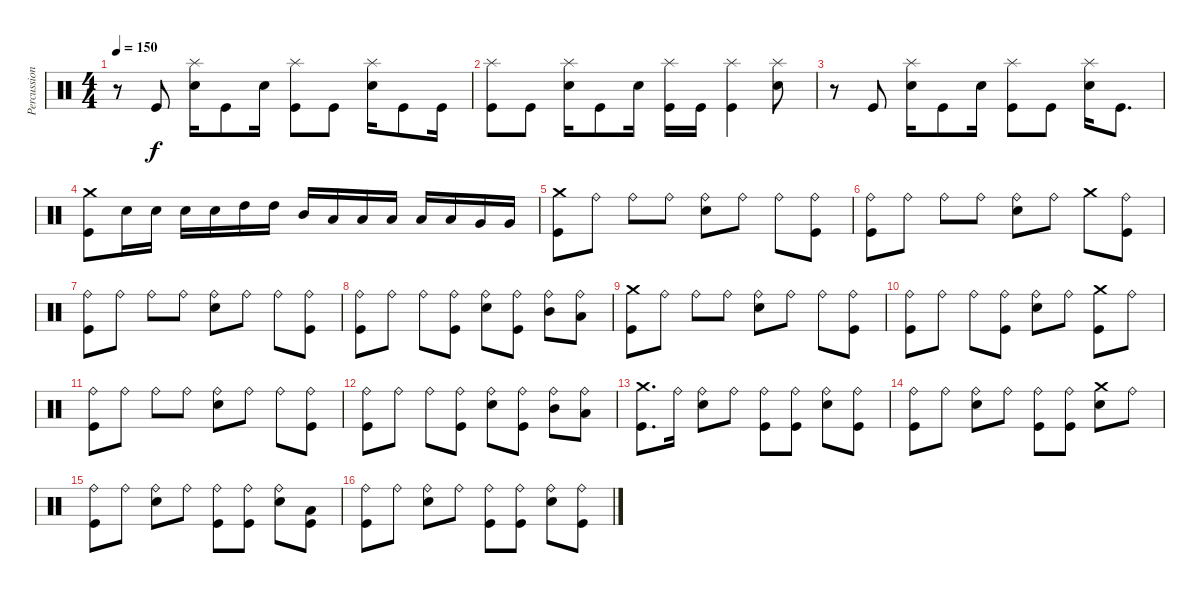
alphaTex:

\track ("Percussions" "Percussion") {instrument percussion}
\staff {score}
\articulation defaults
\ts (4 4)
\tempo 150
\clef neutral
\ks c
r.8{dy f} "Kick (hit)".8 ("Electric Snare (hit)" "Splash (hit)").16 "Kick (hit)".8 "Electric Snare (hit)".16 ("Kick (hit)" "Splash (hit)").8 "Kick (hit)".8 ("Electric Snare (hit)" "Splash (hit)").16 "Kick (hit)".8 "Kick (hit)".16 |
("Kick (hit)" "Splash (hit)").8 "Kick (hit)".8 ("Electric Snare (hit)" "Splash (hit)").16 "Kick (hit)".8 "Electric Snare (hit)".16 ("Kick (hit)" "Splash (hit)").16 "Kick (hit)".16 ("Kick (hit)" "Splash (hit)").4 ("Electric Snare (hit)" "Splash (hit)").8 |
r.8 "Kick (hit)".8 ("Electric Snare (hit)" "Splash (hit)").16 "Kick (hit)".8 "Electric Snare (hit)".16 ("Kick (hit)" "Splash (hit)").8 "Kick (hit)".8 ("Electric Snare (hit)" "Splash (hit)").16 "Kick (hit)".8{d} |
("Kick (hit)" "Crash medium (hit)").8 "Electric Snare (hit)".16 "Electric Snare (hit)".16 "Electric Snare (hit)".16 "Electric Snare (hit)".16 "High Tom (hit)".16 "High Tom (hit)".16 "Mid Tom (hit)".16 "Low Tom (hit)".16 "Low Tom (hit)".16 "Low Tom (hit)".16 "Low Tom (hit)".16 "Low Tom (hit)".16 "Very Low Tom (hit)".16 "Very Low Tom (hit)".16 |
("Kick (hit)" "Crash medium (hit)").8 "Ride (bell)".8 "Ride (bell)".8 "Ride (bell)".8 ("Electric Snare (hit)" "Ride (bell)").8 "Ride (bell)".8 "Ride (bell)".8 ("Kick (hit)" "Ride (bell)").8 |
("Kick (hit)" "Ride (bell)").8 "Ride (bell)".8 "Ride (bell)".8 "Ride (bell)".8 ("Electric Snare (hit)" "Ride (bell)").8 "Ride (bell)".8 "Crash medium (hit)".8 ("Kick (hit)" "Ride (bell)").8 |
("Kick (hit)" "Ride (bell)").8 "Ride (bell)".8 "Ride (bell)".8 "Ride (bell)".8 ("Electric Snare (hit)" "Ride (bell)").8 "Ride (bell)".8 "Ride (bell)".8 ("Kick (hit)" "Ride (bell)").8 |
("Kick (hit)" "Ride (bell)").8 "Ride (bell)".8 "Ride (bell)".8 ("Kick (hit)" "Ride (bell)").8 ("Electric Snare (hit)" "Ride (bell)").8 ("Kick (hit)" "Ride (bell)").8 ("Mid Tom (hit)" "Ride (bell)").8 ("Low Tom (hit)" "Ride (bell)").8 |
("Kick (hit)" "Crash medium (hit)").8 "Ride (bell)".8 "Ride (bell)".8 "Ride (bell)".8 ("Electric Snare (hit)" "Ride (bell)").8 "Ride (bell)".8 "Ride (bell)".8 ("Kick (hit)" "Ride (bell)").8 |
("Kick (hit)" "Ride (bell)").8 "Ride (bell)".8 "Ride (bell)".8 ("Kick (hit)" "Ride (bell)").8 ("Electric Snare (hit)" "Ride (bell)").8 "Ride (bell)".8 ("Kick (hit)" "Crash medium (hit)").8 "Ride (bell)".8 |
("Kick (hit)" "Ride (bell)").8 "Ride (bell)".8 "Ride (bell)".8 "Ride (bell)".8 ("Electric Snare (hit)" "Ride (bell)").8 "Ride (bell)".8 "Ride (bell)".8 ("Kick (hit)" "Ride (bell)").8 |
("Kick (hit)" "Ride (bell)").8 "Ride (bell)".8 "Ride (bell)".8 ("Kick (hit)" "Ride (bell)").8 ("Electric Snare (hit)" "Ride (bell)").8 ("Kick (hit)" "Ride (bell)").8 ("Mid Tom (hit)" "Ride (bell)").8 ("Low Tom (hit)" "Ride (bell)").8 |
("Kick (hit)" "Crash medium (hit)").8{d} "Ride (bell)".16 ("Electric Snare (hit)" "Ride (bell)").8 "Ride (bell)".8 ("Kick (hit)" "Ride (bell)").8 ("Kick (hit)" "Ride (bell)").8 ("Electric Snare (hit)" "Ride (bell)").8 ("Kick (hit)" "Ride (bell)").8 |
("Kick (hit)" "Ride (bell)").8 "Ride (bell)".8 ("Electric Snare (hit)" "Ride (bell)").8 "Ride (bell)".8 ("Kick (hit)" "Ride (bell)").8 ("Kick (hit)" "Ride (bell)").8 ("Electric Snare (hit)" "Crash medium (hit)").8 "Ride (bell)".8 |
("Kick (hit)" "Ride (bell)").8 "Ride (bell)".8 ("Electric Snare (hit)" "Ride (bell)").8 "Ride (bell)".8 ("Kick (hit)" "Ride (bell)").8 ("Kick (hit)" "Ride (bell)").8 ("Electric Snare (hit)" "Ride (bell)").8 ("Kick (hit)" "Low Floor Tom (hit)").8 |
("Kick (hit)" "Ride (bell)").8 "Ride (bell)".8 ("Electric Snare (hit)" "Ride (bell)").8 "Ride (bell)".8 ("Kick (hit)" "Ride (bell)").8 ("Kick (hit)" "Ride (bell)").8 ("Electric Snare (hit)" "Ride (bell)").8 ("Kick (hit)" "Ride (bell)").8
